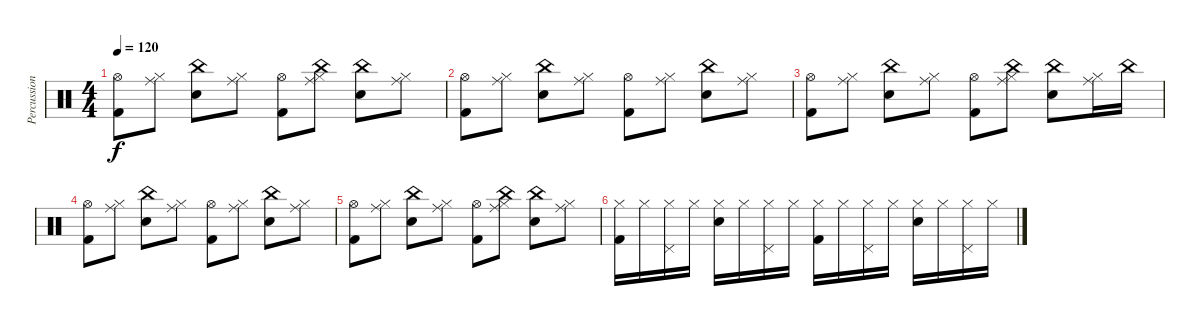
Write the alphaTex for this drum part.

\track ("Percussion" "Percussion") {instrument percussion}
\staff {score}
\articulation defaults
\ts (4 4)
\tempo 120
\clef neutral
\ks c
("Hi-Hat (open)" "Kick (hit) 2").8{dy f} ("Hi-Hat (closed)" "Ride (middle)").8 ("China (hit)" "Snare (hit) 2").8 ("Hi-Hat (closed)" "Ride (middle)").8 ("Hi-Hat (open)" "Kick (hit) 2").8 ("Hi-Hat (closed)" "China (hit)" "Ride (middle)").8 ("China (hit)" "Snare (hit) 2").8 ("Hi-Hat (closed)" "Ride (middle)").8 |
("Hi-Hat (open)" "Kick (hit) 2").8 ("Hi-Hat (closed)" "Ride (middle)").8 ("China (hit)" "Snare (hit) 2").8 ("Hi-Hat (closed)" "Ride (middle)").8 ("Hi-Hat (open)" "Kick (hit) 2").8 ("Hi-Hat (closed)" "Ride (middle)").8 ("China (hit)" "Snare (hit) 2").8 ("Hi-Hat (closed)" "Ride (middle)").8 |
("Hi-Hat (open)" "Kick (hit) 2").8 ("Hi-Hat (closed)" "Ride (middle)").8 ("China (hit)" "Snare (hit) 2").8 ("Hi-Hat (closed)" "Ride (middle)").8 ("Hi-Hat (open)" "Kick (hit) 2").8 ("Hi-Hat (closed)" "China (hit)" "Ride (middle)").8 ("China (hit)" "Snare (hit) 2").8 ("Hi-Hat (closed)" "Ride (middle)").16 "China (hit)".16 |
("Hi-Hat (open)" "Kick (hit) 2").8 ("Hi-Hat (closed)" "Ride (middle)").8 ("China (hit)" "Snare (hit) 2").8 ("Hi-Hat (closed)" "Ride (middle)").8 ("Hi-Hat (open)" "Kick (hit) 2").8 ("Hi-Hat (closed)" "Ride (middle)").8 ("China (hit)" "Snare (hit) 2").8 ("Hi-Hat (closed)" "Ride (middle)").8 |
("Hi-Hat (open)" "Kick (hit) 2").8 ("Hi-Hat (closed)" "Ride (middle)").8 ("China (hit)" "Snare (hit) 2").8 ("Hi-Hat (closed)" "Ride (middle)").8 ("Hi-Hat (open)" "Kick (hit) 2").8 ("Hi-Hat (closed)" "China (hit)" "Ride (middle)").8 ("China (hit)" "Snare (hit) 2").8 ("Hi-Hat (closed)" "Ride (middle)").8 |
("Hi-Hat (closed)" "Kick (hit) 2").16 "Hi-Hat (closed)".16 ("Hi-Hat (closed)" "Pedal Hi-Hat (hit)").16 "Hi-Hat (closed)".16 ("Hi-Hat (closed)" "Snare (hit) 2").16 "Hi-Hat (closed)".16 ("Hi-Hat (closed)" "Pedal Hi-Hat (hit)").16 "Hi-Hat (closed)".16 ("Hi-Hat (closed)" "Kick (hit) 2").16 "Hi-Hat (closed)".16 ("Hi-Hat (closed)" "Pedal Hi-Hat (hit)").16 "Hi-Hat (closed)".16 ("Hi-Hat (closed)" "Snare (hit) 2").16 "Hi-Hat (closed)".16 ("Hi-Hat (closed)" "Pedal Hi-Hat (hit)").16 "Hi-Hat (closed)".16
